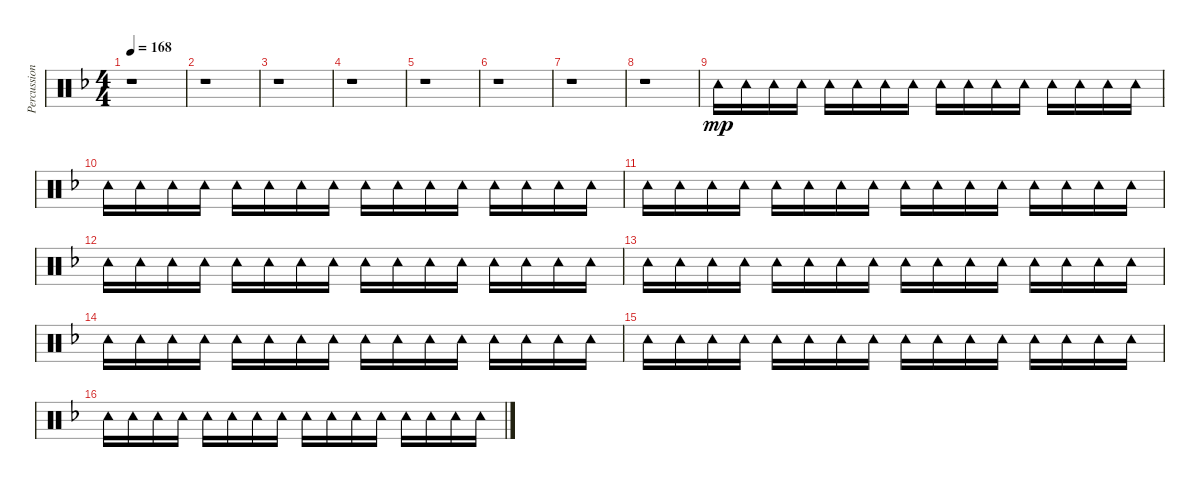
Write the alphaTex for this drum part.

\track ("Percussions" "Percussion") {instrument percussion}
\staff {score}
\articulation defaults
\ts (4 4)
\tempo 168
\clef neutral
\ks f
r.1{dy mp} |
r.1 |
r.1 |
r.1 |
r.1 |
r.1 |
r.1 |
r.1 |
"Tambourine (hit)".16 "Tambourine (hit)".16 "Tambourine (hit)".16 "Tambourine (hit)".16 "Tambourine (hit)".16 "Tambourine (hit)".16 "Tambourine (hit)".16 "Tambourine (hit)".16 "Tambourine (hit)".16 "Tambourine (hit)".16 "Tambourine (hit)".16 "Tambourine (hit)".16 "Tambourine (hit)".16 "Tambourine (hit)".16 "Tambourine (hit)".16 "Tambourine (hit)".16 |
"Tambourine (hit)".16 "Tambourine (hit)".16 "Tambourine (hit)".16 "Tambourine (hit)".16 "Tambourine (hit)".16 "Tambourine (hit)".16 "Tambourine (hit)".16 "Tambourine (hit)".16 "Tambourine (hit)".16 "Tambourine (hit)".16 "Tambourine (hit)".16 "Tambourine (hit)".16 "Tambourine (hit)".16 "Tambourine (hit)".16 "Tambourine (hit)".16 "Tambourine (hit)".16 |
"Tambourine (hit)".16 "Tambourine (hit)".16 "Tambourine (hit)".16 "Tambourine (hit)".16 "Tambourine (hit)".16 "Tambourine (hit)".16 "Tambourine (hit)".16 "Tambourine (hit)".16 "Tambourine (hit)".16 "Tambourine (hit)".16 "Tambourine (hit)".16 "Tambourine (hit)".16 "Tambourine (hit)".16 "Tambourine (hit)".16 "Tambourine (hit)".16 "Tambourine (hit)".16 |
"Tambourine (hit)".16 "Tambourine (hit)".16 "Tambourine (hit)".16 "Tambourine (hit)".16 "Tambourine (hit)".16 "Tambourine (hit)".16 "Tambourine (hit)".16 "Tambourine (hit)".16 "Tambourine (hit)".16 "Tambourine (hit)".16 "Tambourine (hit)".16 "Tambourine (hit)".16 "Tambourine (hit)".16 "Tambourine (hit)".16 "Tambourine (hit)".16 "Tambourine (hit)".16 |
"Tambourine (hit)".16 "Tambourine (hit)".16 "Tambourine (hit)".16 "Tambourine (hit)".16 "Tambourine (hit)".16 "Tambourine (hit)".16 "Tambourine (hit)".16 "Tambourine (hit)".16 "Tambourine (hit)".16 "Tambourine (hit)".16 "Tambourine (hit)".16 "Tambourine (hit)".16 "Tambourine (hit)".16 "Tambourine (hit)".16 "Tambourine (hit)".16 "Tambourine (hit)".16 |
"Tambourine (hit)".16 "Tambourine (hit)".16 "Tambourine (hit)".16 "Tambourine (hit)".16 "Tambourine (hit)".16 "Tambourine (hit)".16 "Tambourine (hit)".16 "Tambourine (hit)".16 "Tambourine (hit)".16 "Tambourine (hit)".16 "Tambourine (hit)".16 "Tambourine (hit)".16 "Tambourine (hit)".16 "Tambourine (hit)".16 "Tambourine (hit)".16 "Tambourine (hit)".16 |
"Tambourine (hit)".16 "Tambourine (hit)".16 "Tambourine (hit)".16 "Tambourine (hit)".16 "Tambourine (hit)".16 "Tambourine (hit)".16 "Tambourine (hit)".16 "Tambourine (hit)".16 "Tambourine (hit)".16 "Tambourine (hit)".16 "Tambourine (hit)".16 "Tambourine (hit)".16 "Tambourine (hit)".16 "Tambourine (hit)".16 "Tambourine (hit)".16 "Tambourine (hit)".16 |
"Tambourine (hit)".16 "Tambourine (hit)".16 "Tambourine (hit)".16 "Tambourine (hit)".16 "Tambourine (hit)".16 "Tambourine (hit)".16 "Tambourine (hit)".16 "Tambourine (hit)".16 "Tambourine (hit)".16 "Tambourine (hit)".16 "Tambourine (hit)".16 "Tambourine (hit)".16 "Tambourine (hit)".16 "Tambourine (hit)".16 "Tambourine (hit)".16 "Tambourine (hit)".16
